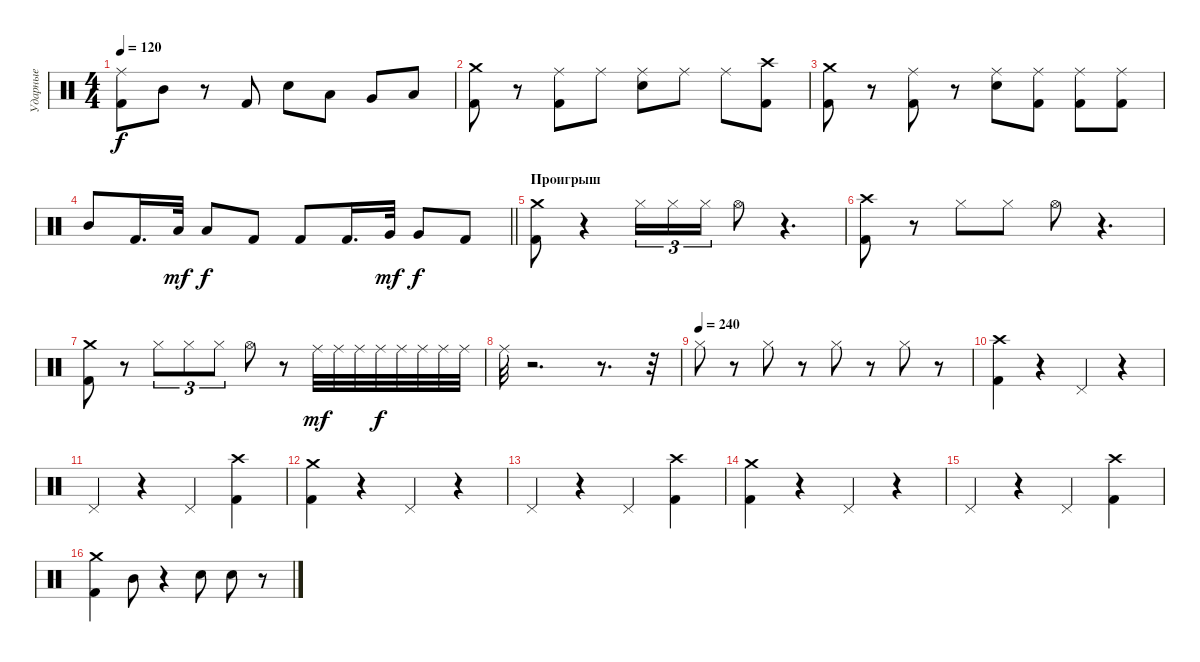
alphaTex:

\track ("Ударные" "Ударные") {instrument percussion}
\staff {score}
\articulation defaults
\ts (4 4)
\tempo 120
\clef neutral
\ks c
("Ride (middle)" "Kick (hit) 2").8{dy f} "Mid Tom (hit)".8 r.8 "Kick (hit) 2".8 "Snare (hit) 2".8 "Low Tom (hit)".8 "Very Low Tom (hit)".8 "Low Floor Tom (hit)".8 |
("Kick (hit) 2" "Crash medium (hit)").8 r.8 ("Kick (hit) 2" "Ride (middle)").8 "Ride (middle)".8 ("Ride (middle)" "Snare (hit) 2").8 "Ride (middle)".8 "Ride (middle)".8 ("Crash high (hit)" "Kick (hit) 2").8 |
("Crash medium (hit)" "Kick (hit) 2").8 r.8 ("Ride (middle)" "Kick (hit) 2").8 r.8 ("Snare (hit) 2" "Ride (middle)").8 ("Kick (hit) 2" "Ride (middle)").8 ("Kick (hit) 2" "Ride (middle)").8 ("Ride (middle)" "Kick (hit) 2").8 |
\barLineRight lightlight "Mid Tom (hit)".8 "Kick (hit) 2".16{d} "Low Tom (hit)".32{dy mf} "Low Tom (hit)".8{dy f} "Kick (hit) 2".8 "Kick (hit) 2".8 "Kick (hit) 2".16{d} "Very Low Tom (hit)".32{dy mf} "Very Low Tom (hit)".8{dy f} "Kick (hit) 2".8
|
\section ("" "Проигрыш")
("Kick (hit) 2" "Crash medium (hit)").8 r.4 "Hi-Hat (closed)".16{tu (3 2)} "Hi-Hat (closed)".16{tu (3 2)} "Hi-Hat (closed)".16{tu (3 2)} "Hi-Hat (open)".8 r.4{d} |
("Kick (hit) 2" "Crash high (hit)").8 r.8 "Hi-Hat (closed)".8 "Hi-Hat (closed)".8 "Hi-Hat (open)".8 r.4{d} |
("Crash medium (hit)" "Kick (hit) 2").8 r.8 "Hi-Hat (closed)".8{tu (3 2)} "Hi-Hat (closed)".8{tu (3 2)} "Hi-Hat (closed)".8{tu (3 2)} "Hi-Hat (open)".8 r.8 "Ride (middle)".32{dy mf} "Ride (middle)".32 "Ride (middle)".32 "Ride (middle)".32{dy f} "Ride (middle)".32 "Ride (middle)".32 "Ride (middle)".32 "Ride (middle)".32 |
"Ride (middle)".32 r.2{d} r.8{d} r.32 |
\tempo (240)
"Hi-Hat (closed)".8 r.8 "Hi-Hat (closed)".8 r.8 "Hi-Hat (closed)".8 r.8 "Hi-Hat (closed)".8 r.8 |
("Crash high (hit)" "Kick (hit) 2").4 r.4 "Pedal Hi-Hat (hit)".4 r.4 |
"Pedal Hi-Hat (hit)".4 r.4 "Pedal Hi-Hat (hit)".4 ("Crash high (hit)" "Kick (hit) 2").4 |
("Kick (hit) 2" "Crash medium (hit)").4 r.4 "Pedal Hi-Hat (hit)".4 r.4 |
"Pedal Hi-Hat (hit)".4 r.4 "Pedal Hi-Hat (hit)".4 ("Crash high (hit)" "Kick (hit) 2").4 |
("Crash medium (hit)" "Kick (hit) 2").4 r.4 "Pedal Hi-Hat (hit)".4 r.4 |
"Pedal Hi-Hat (hit)".4 r.4 "Pedal Hi-Hat (hit)".4 ("Crash high (hit)" "Kick (hit) 2").4 |
("Kick (hit) 2" "Crash medium (hit)").4 "Mid Tom (hit)".8 r.4 "Snare (hit) 2".8 "Snare (hit) 2".8 r.8
